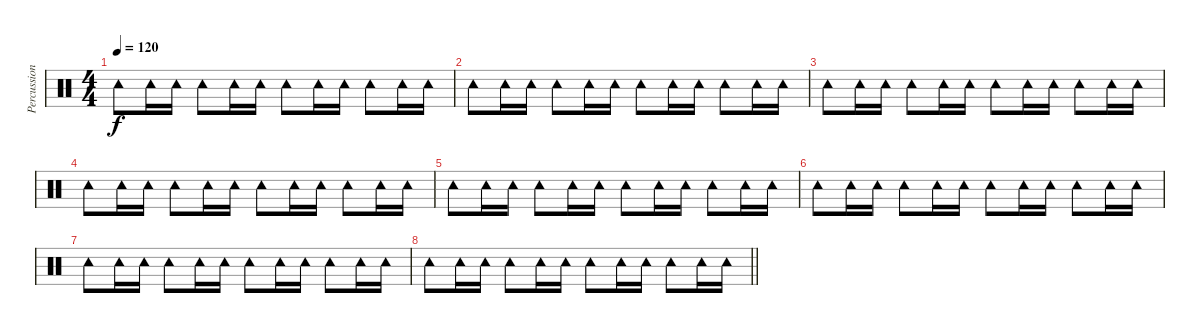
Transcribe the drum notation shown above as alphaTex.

\track ("Percussion" "Percussion") {instrument percussion}
\staff {score}
\articulation defaults
\ts (4 4)
\tempo 120
\clef neutral
\ks c "Tambourine (hit)".8{dy f} "Tambourine (hit)".16 "Tambourine (hit)".16 "Tambourine (hit)".8 "Tambourine (hit)".16 "Tambourine (hit)".16 "Tambourine (hit)".8 "Tambourine (hit)".16 "Tambourine (hit)".16 "Tambourine (hit)".8 "Tambourine (hit)".16 "Tambourine (hit)".16
|
"Tambourine (hit)".8 "Tambourine (hit)".16 "Tambourine (hit)".16 "Tambourine (hit)".8 "Tambourine (hit)".16 "Tambourine (hit)".16 "Tambourine (hit)".8 "Tambourine (hit)".16 "Tambourine (hit)".16 "Tambourine (hit)".8 "Tambourine (hit)".16 "Tambourine (hit)".16 |
"Tambourine (hit)".8 "Tambourine (hit)".16 "Tambourine (hit)".16 "Tambourine (hit)".8 "Tambourine (hit)".16 "Tambourine (hit)".16 "Tambourine (hit)".8 "Tambourine (hit)".16 "Tambourine (hit)".16 "Tambourine (hit)".8 "Tambourine (hit)".16 "Tambourine (hit)".16 |
"Tambourine (hit)".8 "Tambourine (hit)".16 "Tambourine (hit)".16 "Tambourine (hit)".8 "Tambourine (hit)".16 "Tambourine (hit)".16 "Tambourine (hit)".8 "Tambourine (hit)".16 "Tambourine (hit)".16 "Tambourine (hit)".8 "Tambourine (hit)".16 "Tambourine (hit)".16 |
"Tambourine (hit)".8 "Tambourine (hit)".16 "Tambourine (hit)".16 "Tambourine (hit)".8 "Tambourine (hit)".16 "Tambourine (hit)".16 "Tambourine (hit)".8 "Tambourine (hit)".16 "Tambourine (hit)".16 "Tambourine (hit)".8 "Tambourine (hit)".16 "Tambourine (hit)".16 |
"Tambourine (hit)".8 "Tambourine (hit)".16 "Tambourine (hit)".16 "Tambourine (hit)".8 "Tambourine (hit)".16 "Tambourine (hit)".16 "Tambourine (hit)".8 "Tambourine (hit)".16 "Tambourine (hit)".16 "Tambourine (hit)".8 "Tambourine (hit)".16 "Tambourine (hit)".16 |
"Tambourine (hit)".8 "Tambourine (hit)".16 "Tambourine (hit)".16 "Tambourine (hit)".8 "Tambourine (hit)".16 "Tambourine (hit)".16 "Tambourine (hit)".8 "Tambourine (hit)".16 "Tambourine (hit)".16 "Tambourine (hit)".8 "Tambourine (hit)".16 "Tambourine (hit)".16 |
\barLineRight lightlight "Tambourine (hit)".8 "Tambourine (hit)".16 "Tambourine (hit)".16 "Tambourine (hit)".8 "Tambourine (hit)".16 "Tambourine (hit)".16 "Tambourine (hit)".8 "Tambourine (hit)".16 "Tambourine (hit)".16 "Tambourine (hit)".8 "Tambourine (hit)".16 "Tambourine (hit)".16
